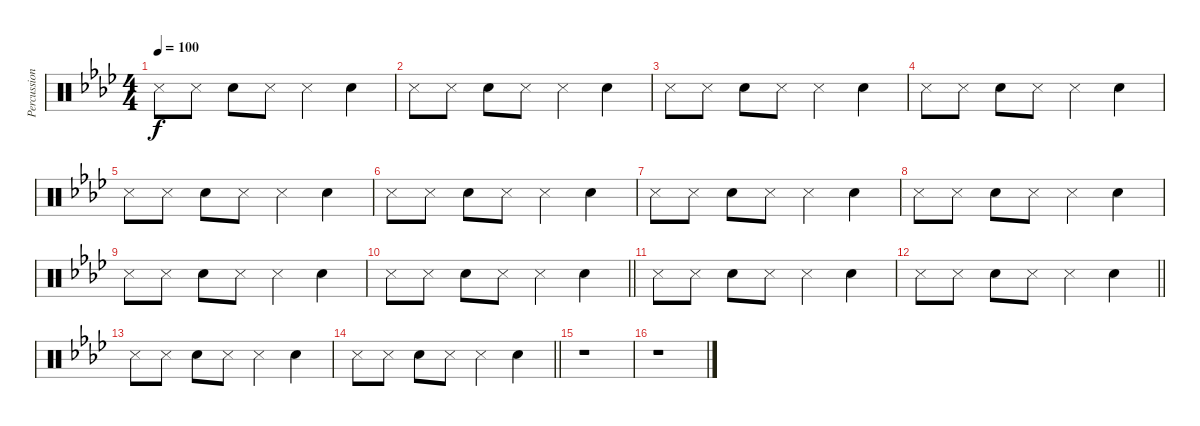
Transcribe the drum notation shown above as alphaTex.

\track ("Percussions" "Percussion") {instrument percussion}
\staff {score}
\articulation defaults
\ts (4 4)
\tempo 100
\clef neutral
\ks ab "Snare (side stick) 3".8{dy f} "Snare (side stick) 3".8 "Hand Clap (hit)".8 "Snare (side stick) 3".8 "Snare (side stick) 3".4 "Hand Clap (hit)".4
|
"Snare (side stick) 3".8 "Snare (side stick) 3".8 "Hand Clap (hit)".8 "Snare (side stick) 3".8 "Snare (side stick) 3".4 "Hand Clap (hit)".4 |
"Snare (side stick) 3".8 "Snare (side stick) 3".8 "Hand Clap (hit)".8 "Snare (side stick) 3".8 "Snare (side stick) 3".4 "Hand Clap (hit)".4 |
"Snare (side stick) 3".8 "Snare (side stick) 3".8 "Hand Clap (hit)".8 "Snare (side stick) 3".8 "Snare (side stick) 3".4 "Hand Clap (hit)".4 |
"Snare (side stick) 3".8 "Snare (side stick) 3".8 "Hand Clap (hit)".8 "Snare (side stick) 3".8 "Snare (side stick) 3".4 "Hand Clap (hit)".4 |
"Snare (side stick) 3".8 "Snare (side stick) 3".8 "Hand Clap (hit)".8 "Snare (side stick) 3".8 "Snare (side stick) 3".4 "Hand Clap (hit)".4 |
"Snare (side stick) 3".8 "Snare (side stick) 3".8 "Hand Clap (hit)".8 "Snare (side stick) 3".8 "Snare (side stick) 3".4 "Hand Clap (hit)".4 |
"Snare (side stick) 3".8 "Snare (side stick) 3".8 "Hand Clap (hit)".8 "Snare (side stick) 3".8 "Snare (side stick) 3".4 "Hand Clap (hit)".4 |
"Snare (side stick) 3".8 "Snare (side stick) 3".8 "Hand Clap (hit)".8 "Snare (side stick) 3".8 "Snare (side stick) 3".4 "Hand Clap (hit)".4 |
\barLineRight lightlight "Snare (side stick) 3".8 "Snare (side stick) 3".8 "Hand Clap (hit)".8 "Snare (side stick) 3".8 "Snare (side stick) 3".4 "Hand Clap (hit)".4
|
"Snare (side stick) 3".8 "Snare (side stick) 3".8 "Hand Clap (hit)".8 "Snare (side stick) 3".8 "Snare (side stick) 3".4 "Hand Clap (hit)".4 |
\barLineRight lightlight "Snare (side stick) 3".8 "Snare (side stick) 3".8 "Hand Clap (hit)".8 "Snare (side stick) 3".8 "Snare (side stick) 3".4 "Hand Clap (hit)".4
|
"Snare (side stick) 3".8 "Snare (side stick) 3".8 "Hand Clap (hit)".8 "Snare (side stick) 3".8 "Snare (side stick) 3".4 "Hand Clap (hit)".4 |
\barLineRight lightlight "Snare (side stick) 3".8 "Snare (side stick) 3".8 "Hand Clap (hit)".8 "Snare (side stick) 3".8 "Snare (side stick) 3".4 "Hand Clap (hit)".4
|
r.1 |
r.1
